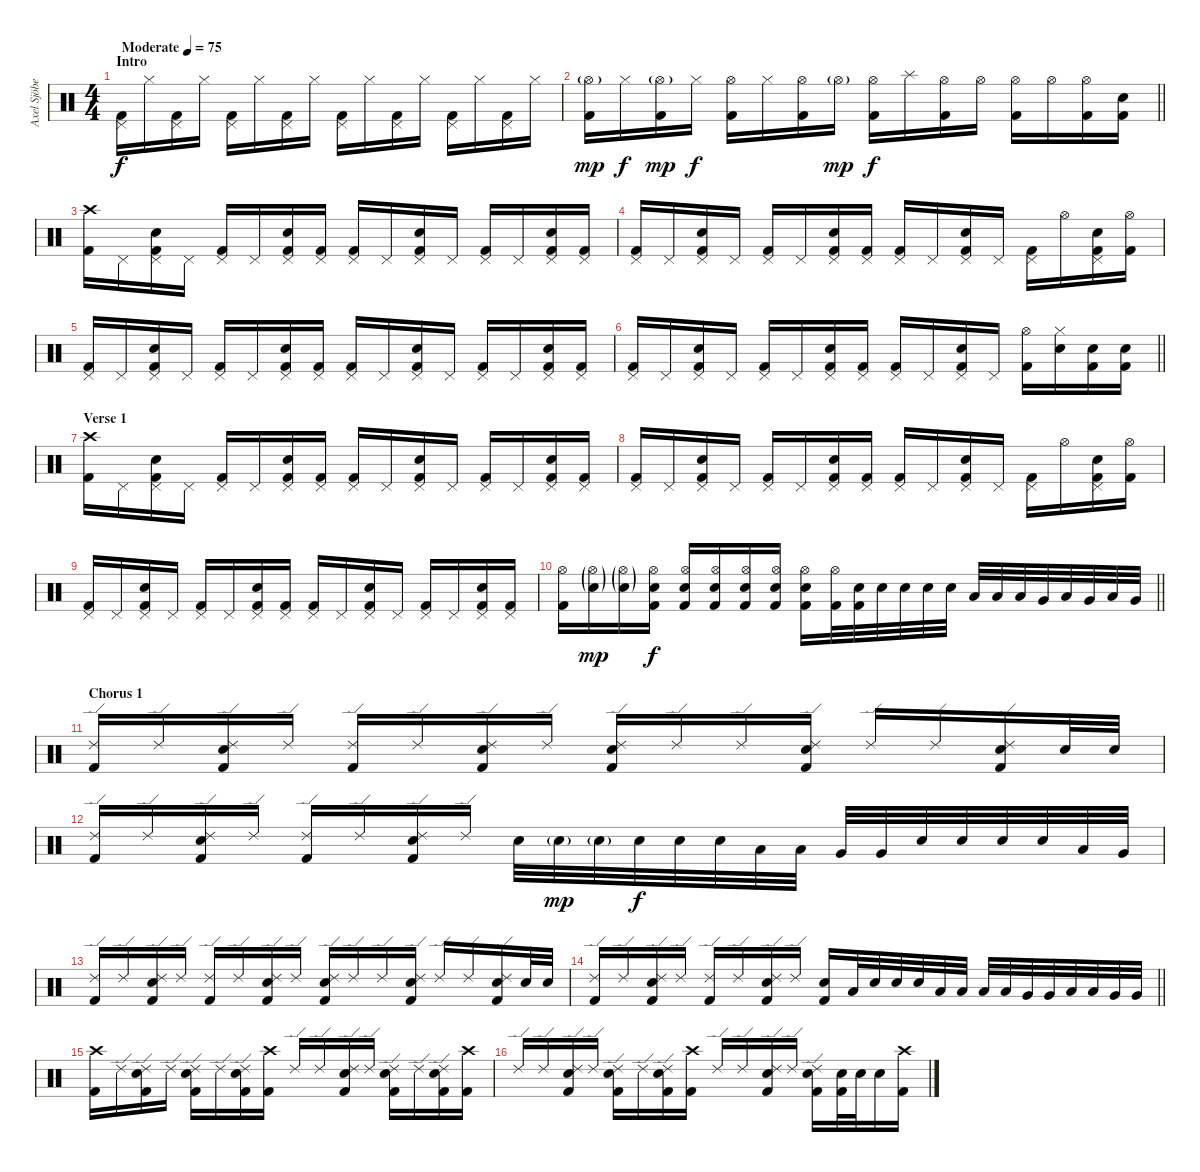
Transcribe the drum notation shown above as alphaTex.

\track ("Axel Sjöberg" "Axel Sjöbe") {instrument percussion}
\staff {score}
\articulation defaults
\ts (4 4)
\section ("" "Intro")
\tempo (75 "Moderate")
\clef neutral
\ks c
("Kick (hit) 2" "Pedal Hi-Hat (hit)").16{dy f} "Hi-Hat (closed)".16 ("Kick (hit) 2" "Pedal Hi-Hat (hit)").16 "Hi-Hat (closed)".16 ("Kick (hit) 2" "Pedal Hi-Hat (hit)").16 "Hi-Hat (closed)".16 ("Kick (hit) 2" "Pedal Hi-Hat (hit)").16 "Hi-Hat (closed)".16 ("Kick (hit) 2" "Pedal Hi-Hat (hit)").16 "Hi-Hat (closed)".16 ("Kick (hit) 2" "Pedal Hi-Hat (hit)").16 "Hi-Hat (closed)".16 ("Kick (hit) 2" "Pedal Hi-Hat (hit)").16 "Hi-Hat (closed)".16 ("Kick (hit) 2" "Pedal Hi-Hat (hit)").16 "Hi-Hat (closed)".16 |
\barLineRight lightlight
("Kick (hit) 2" "Hi-Hat (open)"{g}).16{dy mp} "Hi-Hat (closed)".16{dy f} ("Kick (hit) 2" "Hi-Hat (open)"{g}).16{dy mp} "Hi-Hat (closed)".16{dy f} ("Kick (hit) 2" "Hi-Hat (open)").16 "Hi-Hat (closed)".16 ("Kick (hit) 2" "Hi-Hat (open)").16 "Hi-Hat (open)"{g}.16{dy mp} ("Kick (hit) 2" "Hi-Hat (open)").16{dy f} "Splash (hit)".16 ("Kick (hit) 2" "Hi-Hat (open)").16 "Hi-Hat (open)".16 ("Kick (hit) 2" "Hi-Hat (open)").16 "Hi-Hat (open)".16 ("Kick (hit) 2" "Hi-Hat (open)").16 ("Kick (hit) 2" "Snare (hit) 2").16 |
("Kick (hit) 2" "Crash high (hit)").16 "Pedal Hi-Hat (hit)".16 ("Kick (hit) 2" "Snare (hit) 2" "Pedal Hi-Hat (hit)").16 "Pedal Hi-Hat (hit)".16 ("Kick (hit) 2" "Pedal Hi-Hat (hit)").16 "Pedal Hi-Hat (hit)".16 ("Kick (hit) 2" "Snare (hit) 2" "Pedal Hi-Hat (hit)").16 ("Kick (hit) 2" "Pedal Hi-Hat (hit)").16 ("Kick (hit) 2" "Pedal Hi-Hat (hit)").16 "Pedal Hi-Hat (hit)".16 ("Kick (hit) 2" "Snare (hit) 2" "Pedal Hi-Hat (hit)").16 "Pedal Hi-Hat (hit)".16 ("Kick (hit) 2" "Pedal Hi-Hat (hit)").16 "Pedal Hi-Hat (hit)".16 ("Kick (hit) 2" "Snare (hit) 2" "Pedal Hi-Hat (hit)").16 ("Kick (hit) 2" "Pedal Hi-Hat (hit)").16 |
("Kick (hit) 2" "Pedal Hi-Hat (hit)").16 "Pedal Hi-Hat (hit)".16 ("Kick (hit) 2" "Snare (hit) 2" "Pedal Hi-Hat (hit)").16 "Pedal Hi-Hat (hit)".16 ("Kick (hit) 2" "Pedal Hi-Hat (hit)").16 "Pedal Hi-Hat (hit)".16 ("Kick (hit) 2" "Snare (hit) 2" "Pedal Hi-Hat (hit)").16 ("Kick (hit) 2" "Pedal Hi-Hat (hit)").16 ("Kick (hit) 2" "Pedal Hi-Hat (hit)").16 "Pedal Hi-Hat (hit)".16 ("Kick (hit) 2" "Snare (hit) 2" "Pedal Hi-Hat (hit)").16 "Pedal Hi-Hat (hit)".16 ("Kick (hit) 2" "Pedal Hi-Hat (hit)").16 "Hi-Hat (open)".16 ("Kick (hit) 2" "Snare (hit) 2" "Pedal Hi-Hat (hit)").16 ("Kick (hit) 2" "Hi-Hat (open)").16 |
("Kick (hit) 2" "Pedal Hi-Hat (hit)").16 "Pedal Hi-Hat (hit)".16 ("Kick (hit) 2" "Snare (hit) 2" "Pedal Hi-Hat (hit)").16 "Pedal Hi-Hat (hit)".16 ("Kick (hit) 2" "Pedal Hi-Hat (hit)").16 "Pedal Hi-Hat (hit)".16 ("Kick (hit) 2" "Snare (hit) 2" "Pedal Hi-Hat (hit)").16 ("Kick (hit) 2" "Pedal Hi-Hat (hit)").16 ("Kick (hit) 2" "Pedal Hi-Hat (hit)").16 "Pedal Hi-Hat (hit)".16 ("Kick (hit) 2" "Snare (hit) 2" "Pedal Hi-Hat (hit)").16 "Pedal Hi-Hat (hit)".16 ("Kick (hit) 2" "Pedal Hi-Hat (hit)").16 "Pedal Hi-Hat (hit)".16 ("Kick (hit) 2" "Snare (hit) 2" "Pedal Hi-Hat (hit)").16 ("Kick (hit) 2" "Pedal Hi-Hat (hit)").16 |
\barLineRight lightlight
("Kick (hit) 2" "Pedal Hi-Hat (hit)").16 "Pedal Hi-Hat (hit)".16 ("Kick (hit) 2" "Snare (hit) 2" "Pedal Hi-Hat (hit)").16 "Pedal Hi-Hat (hit)".16 ("Kick (hit) 2" "Pedal Hi-Hat (hit)").16 "Pedal Hi-Hat (hit)".16 ("Kick (hit) 2" "Snare (hit) 2" "Pedal Hi-Hat (hit)").16 ("Kick (hit) 2" "Pedal Hi-Hat (hit)").16 ("Kick (hit) 2" "Pedal Hi-Hat (hit)").16 "Pedal Hi-Hat (hit)".16 ("Kick (hit) 2" "Snare (hit) 2" "Pedal Hi-Hat (hit)").16 "Pedal Hi-Hat (hit)".16 ("Kick (hit) 2" "Hi-Hat (open)").16 ("Snare (hit) 2" "Hi-Hat (closed)").16 ("Kick (hit) 2" "Snare (hit) 2").16 ("Kick (hit) 2" "Snare (hit) 2").16 |
\section ("" "Verse 1")
("Kick (hit) 2" "Crash high (hit)").16 "Pedal Hi-Hat (hit)".16 ("Kick (hit) 2" "Snare (hit) 2" "Pedal Hi-Hat (hit)").16 "Pedal Hi-Hat (hit)".16 ("Kick (hit) 2" "Pedal Hi-Hat (hit)").16 "Pedal Hi-Hat (hit)".16 ("Kick (hit) 2" "Snare (hit) 2" "Pedal Hi-Hat (hit)").16 ("Kick (hit) 2" "Pedal Hi-Hat (hit)").16 ("Kick (hit) 2" "Pedal Hi-Hat (hit)").16 "Pedal Hi-Hat (hit)".16 ("Kick (hit) 2" "Snare (hit) 2" "Pedal Hi-Hat (hit)").16 "Pedal Hi-Hat (hit)".16 ("Kick (hit) 2" "Pedal Hi-Hat (hit)").16 "Pedal Hi-Hat (hit)".16 ("Kick (hit) 2" "Snare (hit) 2" "Pedal Hi-Hat (hit)").16 ("Kick (hit) 2" "Pedal Hi-Hat (hit)").16 |
("Kick (hit) 2" "Pedal Hi-Hat (hit)").16 "Pedal Hi-Hat (hit)".16 ("Kick (hit) 2" "Snare (hit) 2" "Pedal Hi-Hat (hit)").16 "Pedal Hi-Hat (hit)".16 ("Kick (hit) 2" "Pedal Hi-Hat (hit)").16 "Pedal Hi-Hat (hit)".16 ("Kick (hit) 2" "Snare (hit) 2" "Pedal Hi-Hat (hit)").16 ("Kick (hit) 2" "Pedal Hi-Hat (hit)").16 ("Kick (hit) 2" "Pedal Hi-Hat (hit)").16 "Pedal Hi-Hat (hit)".16 ("Kick (hit) 2" "Snare (hit) 2" "Pedal Hi-Hat (hit)").16 "Pedal Hi-Hat (hit)".16 ("Kick (hit) 2" "Pedal Hi-Hat (hit)").16 "Hi-Hat (open)".16 ("Kick (hit) 2" "Snare (hit) 2" "Pedal Hi-Hat (hit)").16 ("Kick (hit) 2" "Hi-Hat (open)").16 |
("Kick (hit) 2" "Pedal Hi-Hat (hit)").16 "Pedal Hi-Hat (hit)".16 ("Kick (hit) 2" "Snare (hit) 2" "Pedal Hi-Hat (hit)").16 "Pedal Hi-Hat (hit)".16 ("Kick (hit) 2" "Pedal Hi-Hat (hit)").16 "Pedal Hi-Hat (hit)".16 ("Kick (hit) 2" "Snare (hit) 2" "Pedal Hi-Hat (hit)").16 ("Kick (hit) 2" "Pedal Hi-Hat (hit)").16 ("Kick (hit) 2" "Pedal Hi-Hat (hit)").16 "Pedal Hi-Hat (hit)".16 ("Kick (hit) 2" "Snare (hit) 2" "Pedal Hi-Hat (hit)").16 "Pedal Hi-Hat (hit)".16 ("Kick (hit) 2" "Pedal Hi-Hat (hit)").16 "Pedal Hi-Hat (hit)".16 ("Kick (hit) 2" "Snare (hit) 2" "Pedal Hi-Hat (hit)").16 ("Kick (hit) 2" "Pedal Hi-Hat (hit)").16 |
\barLineRight lightlight
("Kick (hit) 2" "Hi-Hat (open)").16 ("Snare (hit) 2"{g} "Hi-Hat (open)"{g}).16{dy mp} ("Snare (hit) 2"{g} "Hi-Hat (open)"{g}).16 ("Kick (hit) 2" "Snare (hit) 2" "Hi-Hat (open)").16{dy f} ("Kick (hit) 2" "Snare (hit) 2" "Hi-Hat (open)").16 ("Kick (hit) 2" "Snare (hit) 2" "Hi-Hat (open)").16 ("Kick (hit) 2" "Snare (hit) 2" "Hi-Hat (open)").16 ("Kick (hit) 2" "Snare (hit) 2" "Hi-Hat (open)").16 ("Kick (hit) 2" "Snare (hit) 2" "Hi-Hat (open)").16 ("Kick (hit) 2" "Hi-Hat (open)").32 ("Kick (hit) 2" "Snare (hit) 2").32 "Snare (hit) 2".32 "Snare (hit) 2".32 "Snare (hit) 2".32 "Snare (hit) 2".32 "Low Tom (hit)".32 "Low Floor Tom (hit)".32 "Low Tom (hit)".32 "Very Low Tom (hit)".32 "Low Tom (hit)".32 "Very Low Tom (hit)".32 "Low Floor Tom (hit)".32 "Very Low Tom (hit)".32 |
\section ("" "Chorus 1")
("Kick (hit) 2" "Ride (edge) 2").16 "Ride (edge) 2".16 ("Kick (hit) 2" "Snare (hit) 2" "Ride (edge) 2").16 "Ride (edge) 2".16 ("Kick (hit) 2" "Ride (edge) 2").16 "Ride (edge) 2".16 ("Kick (hit) 2" "Snare (hit) 2" "Ride (edge) 2").16 "Ride (edge) 2".16 ("Kick (hit) 2" "Snare (hit) 2" "Ride (edge) 2").16 "Ride (edge) 2".16 "Ride (edge) 2".16 ("Kick (hit) 2" "Snare (hit) 2" "Ride (edge) 2").16 "Ride (edge) 2".16 "Ride (edge) 2".16 ("Kick (hit) 2" "Snare (hit) 2" "Ride (edge) 2").16 "Snare (hit) 2".32 "Snare (hit) 2".32 |
("Kick (hit) 2" "Ride (edge) 2").16 "Ride (edge) 2".16 ("Kick (hit) 2" "Snare (hit) 2" "Ride (edge) 2").16 "Ride (edge) 2".16 ("Kick (hit) 2" "Ride (edge) 2").16 "Ride (edge) 2".16 ("Kick (hit) 2" "Snare (hit) 2" "Ride (edge) 2").16 "Ride (edge) 2".16 "Snare (hit) 2".32 "Snare (hit) 2"{g}.32{dy mp} "Snare (hit) 2"{g}.32 "Snare (hit) 2".32{dy f} "Snare (hit) 2".32 "Snare (hit) 2".32 "Low Tom (hit)".32 "Low Floor Tom (hit)".32 "Very Low Tom (hit)".32 "Very Low Tom (hit)".32 "Snare (hit) 2".32 "Snare (hit) 2".32 "Snare (hit) 2".32 "Snare (hit) 2".32 "Low Tom (hit)".32 "Very Low Tom (hit)".32 |
("Kick (hit) 2" "Ride (edge) 2").16 "Ride (edge) 2".16 ("Kick (hit) 2" "Snare (hit) 2" "Ride (edge) 2").16 "Ride (edge) 2".16 ("Kick (hit) 2" "Ride (edge) 2").16 "Ride (edge) 2".16 ("Kick (hit) 2" "Snare (hit) 2" "Ride (edge) 2").16 "Ride (edge) 2".16 ("Kick (hit) 2" "Snare (hit) 2" "Ride (edge) 2").16 "Ride (edge) 2".16 "Ride (edge) 2".16 ("Kick (hit) 2" "Snare (hit) 2" "Ride (edge) 2").16 "Ride (edge) 2".16 "Ride (edge) 2".16 ("Kick (hit) 2" "Snare (hit) 2" "Ride (edge) 2").16 "Snare (hit) 2".32 "Snare (hit) 2".32 |
\barLineRight lightlight
("Kick (hit) 2" "Ride (edge) 2").16 "Ride (edge) 2".16 ("Kick (hit) 2" "Snare (hit) 2" "Ride (edge) 2").16 "Ride (edge) 2".16 ("Kick (hit) 2" "Ride (edge) 2").16 "Ride (edge) 2".16 ("Kick (hit) 2" "Snare (hit) 2" "Ride (edge) 2").16 "Ride (edge) 2".16 ("Kick (hit) 2" "Snare (hit) 2").16 "Low Floor Tom (hit)".32 "Snare (hit) 2".32 "Snare (hit) 2".32 "Snare (hit) 2".32 "Low Tom (hit)".32 "Low Tom (hit)".32 "Low Tom (hit)".32 "Low Tom (hit)".32 "Very Low Tom (hit)".32 "Very Low Tom (hit)".32 "Low Floor Tom (hit)".32 "Low Floor Tom (hit)".32 "Very Low Tom (hit)".32 "Very Low Tom (hit)".32 |
("Kick (hit) 2" "Crash high (hit)").16 "Ride (edge) 2".16 ("Kick (hit) 2" "Snare (hit) 2" "Ride (edge) 2").16 "Ride (edge) 2".16 ("Kick (hit) 2" "Snare (hit) 2" "Ride (edge) 2").16 "Ride (edge) 2".16 ("Kick (hit) 2" "Snare (hit) 2" "Ride (edge) 2").16 ("Kick (hit) 2" "Crash high (hit)").16 "Ride (edge) 2".16 "Ride (edge) 2".16 ("Kick (hit) 2" "Snare (hit) 2" "Ride (edge) 2").16 "Ride (edge) 2".16 ("Kick (hit) 2" "Snare (hit) 2" "Ride (edge) 2").16 "Ride (edge) 2".16 ("Kick (hit) 2" "Snare (hit) 2" "Ride (edge) 2").16 ("Kick (hit) 2" "Crash high (hit)").16 |
"Ride (edge) 2".16 "Ride (edge) 2".16 ("Kick (hit) 2" "Snare (hit) 2" "Ride (edge) 2").16 "Ride (edge) 2".16 ("Kick (hit) 2" "Snare (hit) 2" "Ride (edge) 2").16 "Ride (edge) 2".16 ("Kick (hit) 2" "Snare (hit) 2" "Ride (edge) 2").16 ("Kick (hit) 2" "Crash high (hit)").16 "Ride (edge) 2".16 "Ride (edge) 2".16 ("Kick (hit) 2" "Snare (hit) 2" "Ride (edge) 2").16 "Ride (edge) 2".16 ("Kick (hit) 2" "Snare (hit) 2" "Ride (edge) 2").16 ("Kick (hit) 2" "Snare (hit) 2").32 "Snare (hit) 2".32 "Snare (hit) 2".16 ("Kick (hit) 2" "Crash high (hit)").16
